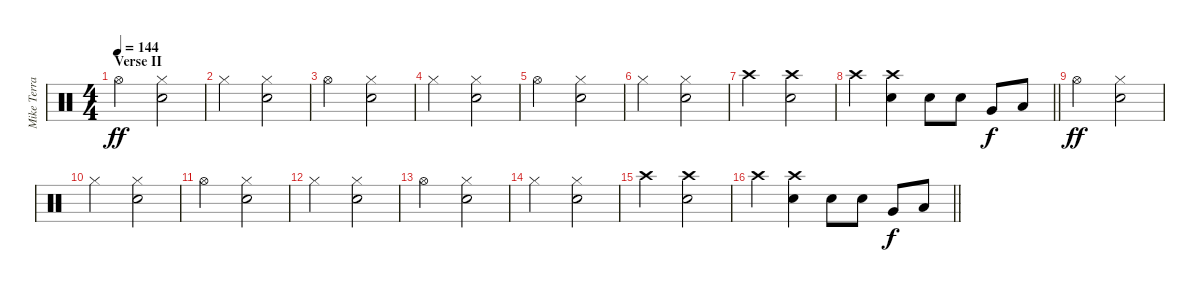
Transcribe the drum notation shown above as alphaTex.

\track ("Mike Terrana" "Mike Terra") {instrument percussion}
\staff {score}
\articulation defaults
\ts (4 4)
\section ("" "Verse II")
\tempo 144
\clef neutral
\ks c "Hi-Hat (open)".2{dy ff}
("Snare (hit) 2" "Hi-Hat (closed)").2 |
"Hi-Hat (closed)".2 ("Snare (hit) 2" "Hi-Hat (closed)").2 |
"Hi-Hat (open)".2 ("Snare (hit) 2" "Hi-Hat (closed)").2 |
"Hi-Hat (closed)".2 ("Snare (hit) 2" "Hi-Hat (closed)").2 |
"Hi-Hat (open)".2 ("Snare (hit) 2" "Hi-Hat (closed)").2 |
"Hi-Hat (closed)".2 ("Snare (hit) 2" "Hi-Hat (closed)").2 |
"Crash high (hit)".2 ("Snare (hit) 2" "Crash high (hit)").2 |
\barLineRight lightlight "Crash high (hit)".4
("Snare (hit) 2" "Crash high (hit)").4 "Snare (hit) 2".8 "Snare (hit) 2".8 "Very Low Tom (hit)".8{dy f} "Low Floor Tom (hit)".8 |
"Hi-Hat (open)".2{dy ff} ("Snare (hit) 2" "Hi-Hat (closed)").2 |
"Hi-Hat (closed)".2 ("Snare (hit) 2" "Hi-Hat (closed)").2 |
"Hi-Hat (open)".2 ("Snare (hit) 2" "Hi-Hat (closed)").2 |
"Hi-Hat (closed)".2 ("Snare (hit) 2" "Hi-Hat (closed)").2 |
"Hi-Hat (open)".2 ("Snare (hit) 2" "Hi-Hat (closed)").2 |
"Hi-Hat (closed)".2 ("Snare (hit) 2" "Hi-Hat (closed)").2 |
"Crash high (hit)".2 ("Snare (hit) 2" "Crash high (hit)").2 |
\barLineRight lightlight "Crash high (hit)".4
("Snare (hit) 2" "Crash high (hit)").4 "Snare (hit) 2".8 "Snare (hit) 2".8 "Very Low Tom (hit)".8{dy f} "Low Floor Tom (hit)".8
